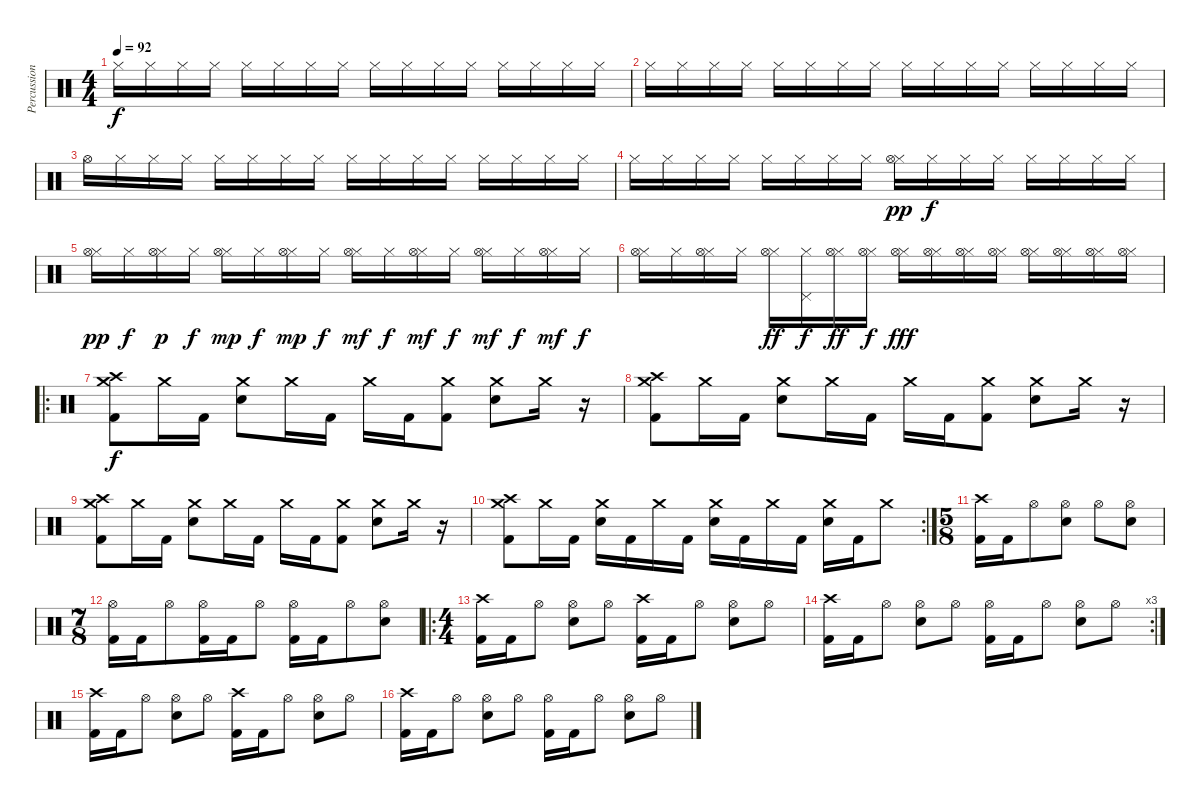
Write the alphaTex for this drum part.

\track ("Percussions" "Percussion") {instrument percussion}
\staff {score}
\articulation defaults
\ts (4 4)
\tempo 92
\clef neutral
\ks c "Hi-Hat (closed)".16{dy f} "Hi-Hat (closed)".16 "Hi-Hat (closed)".16 "Hi-Hat (closed)".16 "Hi-Hat (closed)".16 "Hi-Hat (closed)".16 "Hi-Hat (closed)".16 "Hi-Hat (closed)".16 "Hi-Hat (closed)".16 "Hi-Hat (closed)".16 "Hi-Hat (closed)".16 "Hi-Hat (closed)".16 "Hi-Hat (closed)".16 "Hi-Hat (closed)".16 "Hi-Hat (closed)".16 "Hi-Hat (closed)".16
|
"Hi-Hat (closed)".16 "Hi-Hat (closed)".16 "Hi-Hat (closed)".16 "Hi-Hat (closed)".16 "Hi-Hat (closed)".16 "Hi-Hat (closed)".16 "Hi-Hat (closed)".16 "Hi-Hat (closed)".16 "Hi-Hat (closed)".16 "Hi-Hat (closed)".16 "Hi-Hat (closed)".16 "Hi-Hat (closed)".16 "Hi-Hat (closed)".16 "Hi-Hat (closed)".16 "Hi-Hat (closed)".16 "Hi-Hat (closed)".16 |
"Hi-Hat (open)".16 "Hi-Hat (closed)".16 "Hi-Hat (closed)".16 "Hi-Hat (closed)".16 "Hi-Hat (closed)".16 "Hi-Hat (closed)".16 "Hi-Hat (closed)".16 "Hi-Hat (closed)".16 "Hi-Hat (closed)".16 "Hi-Hat (closed)".16 "Hi-Hat (closed)".16 "Hi-Hat (closed)".16 "Hi-Hat (closed)".16 "Hi-Hat (closed)".16 "Hi-Hat (closed)".16 "Hi-Hat (closed)".16 |
"Hi-Hat (closed)".16 "Hi-Hat (closed)".16 "Hi-Hat (closed)".16 "Hi-Hat (closed)".16 "Hi-Hat (closed)".16 "Hi-Hat (closed)".16 "Hi-Hat (closed)".16 "Hi-Hat (closed)".16 ("Hi-Hat (closed)" "Hi-Hat (open)").16{dy pp} "Hi-Hat (closed)".16{dy f} "Hi-Hat (closed)".16 "Hi-Hat (closed)".16 "Hi-Hat (closed)".16 "Hi-Hat (closed)".16 "Hi-Hat (closed)".16 "Hi-Hat (closed)".16 |
("Hi-Hat (closed)" "Hi-Hat (open)").16{dy pp} "Hi-Hat (closed)".16{dy f} ("Hi-Hat (closed)" "Hi-Hat (open)").16{dy p} "Hi-Hat (closed)".16{dy f} ("Hi-Hat (closed)" "Hi-Hat (open)").16{dy mp} "Hi-Hat (closed)".16{dy f} ("Hi-Hat (closed)" "Hi-Hat (open)").16{dy mp} "Hi-Hat (closed)".16{dy f} ("Hi-Hat (closed)" "Hi-Hat (open)").16{dy mf} "Hi-Hat (closed)".16{dy f} ("Hi-Hat (closed)" "Hi-Hat (open)").16{dy mf} "Hi-Hat (closed)".16{dy f} ("Hi-Hat (closed)" "Hi-Hat (open)").16{dy mf} "Hi-Hat (closed)".16{dy f} ("Hi-Hat (closed)" "Hi-Hat (open)").16{dy mf} "Hi-Hat (closed)".16{dy f} |
("Hi-Hat (closed)" "Hi-Hat (open)").16 "Hi-Hat (closed)".16 ("Hi-Hat (closed)" "Hi-Hat (open)").16 "Hi-Hat (closed)".16 ("Hi-Hat (closed)" "Hi-Hat (open)").16{dy ff} ("Hi-Hat (closed)" "Pedal Hi-Hat (hit)").16{dy f} ("Hi-Hat (closed)" "Hi-Hat (open)").16{dy ff} ("Hi-Hat (closed)" "Hi-Hat (open)").16{dy f} ("Hi-Hat (closed)" "Hi-Hat (open)").16{dy fff} ("Hi-Hat (closed)" "Hi-Hat (open)").16 ("Hi-Hat (closed)" "Hi-Hat (open)").16 ("Hi-Hat (closed)" "Hi-Hat (open)").16 ("Hi-Hat (closed)" "Hi-Hat (open)").16 ("Hi-Hat (closed)" "Hi-Hat (open)").16 ("Hi-Hat (closed)" "Hi-Hat (open)").16 ("Hi-Hat (closed)" "Hi-Hat (open)").16 |
\ro
("Crash high (hit)" "Crash medium (hit)" "Kick (hit) 2").8{dy f} "Crash medium (hit)".16 "Kick (hit) 2".16 ("Crash medium (hit)" "Electric Snare (hit)").8 "Crash medium (hit)".16 "Kick (hit) 2".16 "Crash medium (hit)".16 "Kick (hit) 2".16 ("Crash medium (hit)" "Kick (hit) 2").8 ("Crash medium (hit)" "Electric Snare (hit)").8 "Crash medium (hit)".16 r.16 |
("Crash high (hit)" "Crash medium (hit)" "Kick (hit) 2").8 "Crash medium (hit)".16 "Kick (hit) 2".16 ("Crash medium (hit)" "Electric Snare (hit)").8 "Crash medium (hit)".16 "Kick (hit) 2".16 "Crash medium (hit)".16 "Kick (hit) 2".16 ("Crash medium (hit)" "Kick (hit) 2").8 ("Crash medium (hit)" "Electric Snare (hit)").8 "Crash medium (hit)".16 r.16 |
("Crash high (hit)" "Crash medium (hit)" "Kick (hit) 2").8 "Crash medium (hit)".16 "Kick (hit) 2".16 ("Crash medium (hit)" "Electric Snare (hit)").8 "Crash medium (hit)".16 "Kick (hit) 2".16 "Crash medium (hit)".16 "Kick (hit) 2".16 ("Crash medium (hit)" "Kick (hit) 2").8 ("Crash medium (hit)" "Electric Snare (hit)").8 "Crash medium (hit)".16 r.16 |
\rc 2
("Crash high (hit)" "Crash medium (hit)" "Kick (hit) 2").8 "Crash medium (hit)".16 "Kick (hit) 2".16 ("Crash medium (hit)" "Electric Snare (hit)").16 "Kick (hit) 2".16 "Crash medium (hit)".16 "Kick (hit) 2".16 ("Crash medium (hit)" "Electric Snare (hit)").16 "Kick (hit) 2".16 "Crash medium (hit)".16 "Kick (hit) 2".16 ("Crash medium (hit)" "Electric Snare (hit)").16 "Kick (hit) 2".16 "Crash medium (hit)".8 |
\ts (5 8)
("Crash high (hit)" "Kick (hit) 2").16 "Kick (hit) 2".16 "Hi-Hat (open)".8 ("Hi-Hat (open)" "Electric Snare (hit)").8 "Hi-Hat (open)".8 ("Hi-Hat (open)" "Electric Snare (hit)").8 |
\ts (7 8)
("Hi-Hat (open)" "Kick (hit) 2").16 "Kick (hit) 2".16 "Hi-Hat (open)".8 ("Hi-Hat (open)" "Kick (hit) 2").16 "Kick (hit) 2".16 "Hi-Hat (open)".8 ("Hi-Hat (open)" "Kick (hit) 2").16 "Kick (hit) 2".16 "Hi-Hat (open)".8 ("Hi-Hat (open)" "Electric Snare (hit)").8 |
\ro
\ts (4 4)
("Crash high (hit)" "Kick (hit) 2").16 "Kick (hit) 2".16 "Hi-Hat (open)".8 ("Hi-Hat (open)" "Electric Snare (hit)").8 "Hi-Hat (open)".8 ("Crash high (hit)" "Kick (hit) 2").16 "Kick (hit) 2".16 "Hi-Hat (open)".8 ("Hi-Hat (open)" "Electric Snare (hit)").8 "Hi-Hat (open)".8 |
\rc 3
("Crash high (hit)" "Kick (hit) 2").16 "Kick (hit) 2".16 "Hi-Hat (open)".8 ("Hi-Hat (open)" "Electric Snare (hit)").8 "Hi-Hat (open)".8 ("Hi-Hat (open)" "Kick (hit) 2").16 "Kick (hit) 2".16 "Hi-Hat (open)".8 ("Hi-Hat (open)" "Electric Snare (hit)").8 "Hi-Hat (open)".8 |
("Crash high (hit)" "Kick (hit) 2").16 "Kick (hit) 2".16 "Hi-Hat (open)".8 ("Hi-Hat (open)" "Electric Snare (hit)").8 "Hi-Hat (open)".8 ("Crash high (hit)" "Kick (hit) 2").16 "Kick (hit) 2".16 "Hi-Hat (open)".8 ("Hi-Hat (open)" "Electric Snare (hit)").8 "Hi-Hat (open)".8 |
("Crash high (hit)" "Kick (hit) 2").16 "Kick (hit) 2".16 "Hi-Hat (open)".8 ("Hi-Hat (open)" "Electric Snare (hit)").8 "Hi-Hat (open)".8 ("Hi-Hat (open)" "Kick (hit) 2").16 "Kick (hit) 2".16 "Hi-Hat (open)".8 ("Hi-Hat (open)" "Electric Snare (hit)").8 "Hi-Hat (open)".8
